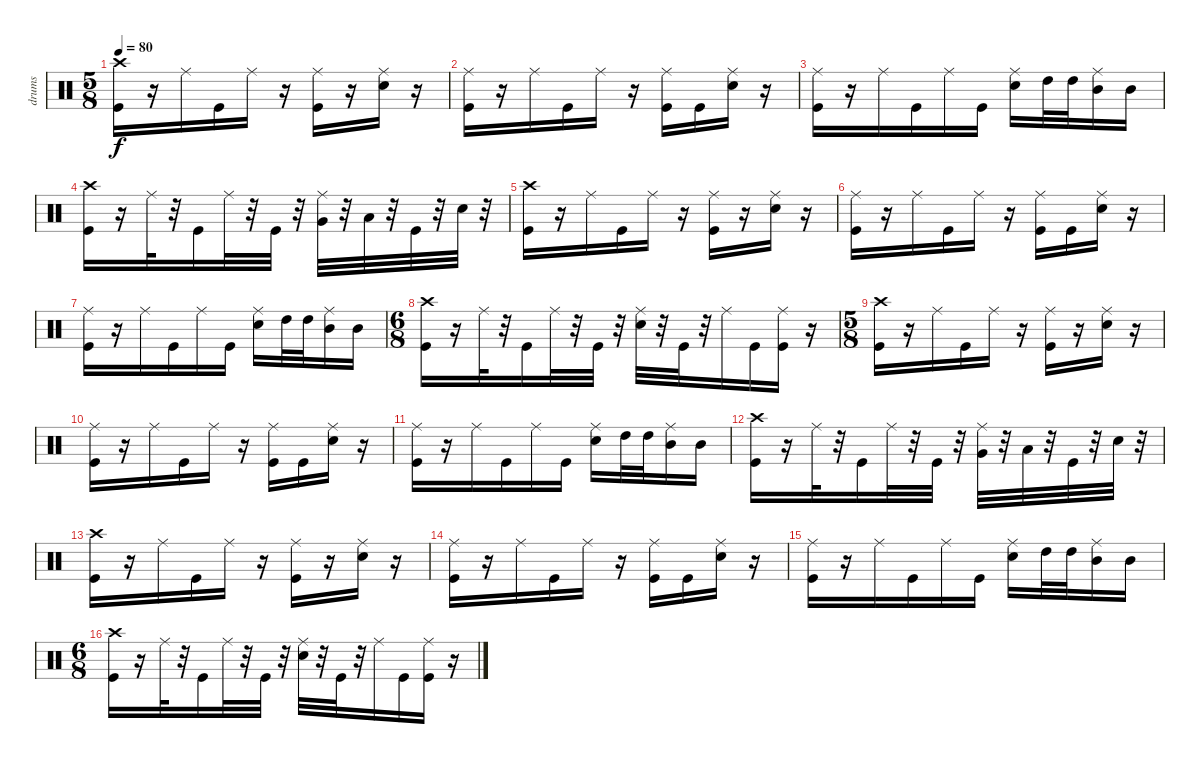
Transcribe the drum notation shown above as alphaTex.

\track ("drums" "drums") {instrument percussion}
\staff {score}
\articulation defaults
\ts (5 8)
\tempo 80
\clef neutral
\ks c
("Crash high (hit)" "Kick (hit)").16{dy f} r.16 "Ride (middle)".16 "Kick (hit)".16 "Ride (middle)".16 r.16 ("Kick (hit)" "Ride (middle)").16 r.16 ("Electric Snare (hit)" "Ride (middle)").16 r.16 |
("Ride (middle)" "Kick (hit)").16 r.16 "Ride (middle)".16 "Kick (hit)".16 "Ride (middle)".16 r.16 ("Ride (middle)" "Kick (hit)").16 "Kick (hit)".16 ("Ride (middle)" "Electric Snare (hit)").16 r.16 |
("Kick (hit)" "Ride (middle)").16 r.16 "Ride (middle)".16 "Kick (hit)".16 "Ride (middle)".16 "Kick (hit)".16 ("Electric Snare (hit)" "Ride (middle)").16 "High Tom (hit)".32 "High Tom (hit)".32 ("Mid Tom (hit)" "Ride (middle)").16 "Mid Tom (hit)".16 |
("Crash high (hit)" "Kick (hit)").16 r.16 "Ride (middle)".32 r.32 "Kick (hit)".16 "Ride (middle)".32 r.32 "Kick (hit)".32 r.32 ("Very Low Tom (hit)" "Ride (middle)").32 r.32 "Low Floor Tom (hit)".32 r.32 "Kick (hit)".32 r.32 "Electric Snare (hit)".32 r.32 |
("Kick (hit)" "Crash high (hit)").16 r.16 "Ride (middle)".16 "Kick (hit)".16 "Ride (middle)".16 r.16 ("Kick (hit)" "Ride (middle)").16 r.16 ("Ride (middle)" "Electric Snare (hit)").16 r.16 |
("Ride (middle)" "Kick (hit)").16 r.16 "Ride (middle)".16 "Kick (hit)".16 "Ride (middle)".16 r.16 ("Ride (middle)" "Kick (hit)").16 "Kick (hit)".16 ("Ride (middle)" "Electric Snare (hit)").16 r.16 |
("Kick (hit)" "Ride (middle)").16 r.16 "Ride (middle)".16 "Kick (hit)".16 "Ride (middle)".16 "Kick (hit)".16 ("Electric Snare (hit)" "Ride (middle)").16 "High Tom (hit)".32 "High Tom (hit)".32 ("Mid Tom (hit)" "Ride (middle)").16 "Mid Tom (hit)".16 |
\ts (6 8)
("Crash high (hit)" "Kick (hit)").16 r.16 "Ride (middle)".32 r.32 "Kick (hit)".16 "Ride (middle)".32 r.32 "Kick (hit)".32 r.32 ("Electric Snare (hit)" "Ride (middle)").32 r.32 "Kick (hit)".32 r.32 "Ride (middle)".16 "Kick (hit)".16 ("Kick (hit)" "Ride (middle)").16 r.16 |
\ts (5 8)
("Crash high (hit)" "Kick (hit)").16 r.16 "Ride (middle)".16 "Kick (hit)".16 "Ride (middle)".16 r.16 ("Kick (hit)" "Ride (middle)").16 r.16 ("Ride (middle)" "Electric Snare (hit)").16 r.16 |
("Ride (middle)" "Kick (hit)").16 r.16 "Ride (middle)".16 "Kick (hit)".16 "Ride (middle)".16 r.16 ("Ride (middle)" "Kick (hit)").16 "Kick (hit)".16 ("Ride (middle)" "Electric Snare (hit)").16 r.16 |
("Kick (hit)" "Ride (middle)").16 r.16 "Ride (middle)".16 "Kick (hit)".16 "Ride (middle)".16 "Kick (hit)".16 ("Ride (middle)" "Electric Snare (hit)").16 "High Tom (hit)".32 "High Tom (hit)".32 ("Mid Tom (hit)" "Ride (middle)").16 "Mid Tom (hit)".16 |
("Crash high (hit)" "Kick (hit)").16 r.16 "Ride (middle)".32 r.32 "Kick (hit)".16 "Ride (middle)".32 r.32 "Kick (hit)".32 r.32 ("Very Low Tom (hit)" "Ride (middle)").32 r.32 "Low Floor Tom (hit)".32 r.32 "Kick (hit)".32 r.32 "Electric Snare (hit)".32 r.32 |
("Crash high (hit)" "Kick (hit)").16 r.16 "Ride (middle)".16 "Kick (hit)".16 "Ride (middle)".16 r.16 ("Kick (hit)" "Ride (middle)").16 r.16 ("Ride (middle)" "Electric Snare (hit)").16 r.16 |
("Ride (middle)" "Kick (hit)").16 r.16 "Ride (middle)".16 "Kick (hit)".16 "Ride (middle)".16 r.16 ("Ride (middle)" "Kick (hit)").16 "Kick (hit)".16 ("Electric Snare (hit)" "Ride (middle)").16 r.16 |
("Kick (hit)" "Ride (middle)").16 r.16 "Ride (middle)".16 "Kick (hit)".16 "Ride (middle)".16 "Kick (hit)".16 ("Electric Snare (hit)" "Ride (middle)").16 "High Tom (hit)".32 "High Tom (hit)".32 ("Mid Tom (hit)" "Ride (middle)").16 "Mid Tom (hit)".16 |
\ts (6 8)
("Crash high (hit)" "Kick (hit)").16 r.16 "Ride (middle)".32 r.32 "Kick (hit)".16 "Ride (middle)".32 r.32 "Kick (hit)".32 r.32 ("Electric Snare (hit)" "Ride (middle)").32 r.32 "Kick (hit)".32 r.32 "Ride (middle)".16 "Kick (hit)".16 ("Kick (hit)" "Ride (middle)").16 r.16
